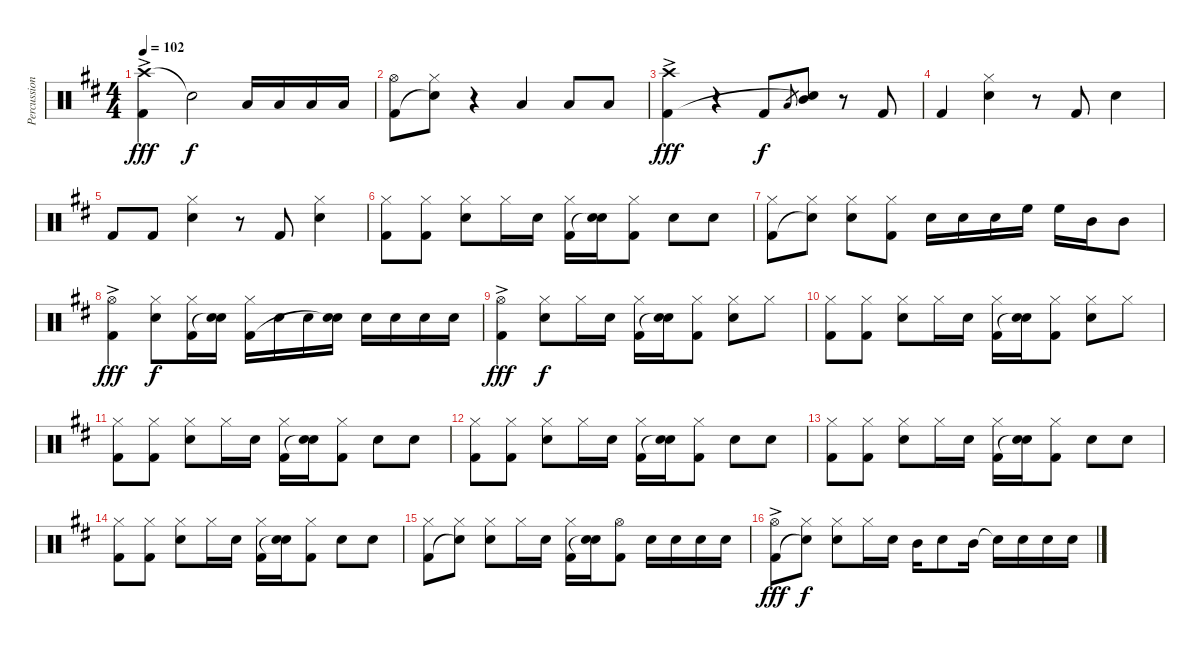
\track ("Percussion" "Percussion") {instrument percussion}
\staff {score}
\articulation defaults
\ts (4 4)
\tempo 102
\clef neutral
\ks d
("Crash high (hit)"{ac} "Kick (hit) 2"{ac}).4{dy fff} "Snare (hit)"{t}.2{dy f} "Low Tom (hit)".16 "Low Tom (hit)".16 "Low Tom (hit)".16 "Low Tom (hit)".16 |
("Hi-Hat (open)" "Kick (hit) 2").8 ("Hi-Hat (closed)" "Snare (hit)"{t}).8 r.4 "Low Tom (hit)".4 "Low Tom (hit)".8 "Low Floor Tom (hit)".8 |
("Crash high (hit)"{ac} "Kick (hit) 2"{ac}).4{dy fff} r.4 "Kick (hit) 2".8{dy f} "Low Tom (hit)".8{gr} ("Mid Tom (hit)" "Snare (hit)"{t}).8 r.8 "Kick (hit) 2".8 |
"Kick (hit) 2".4 ("Hi-Hat (closed)" "Snare (hit) 2").4 r.8 "Kick (hit) 2".8 "Snare (hit) 2".4 |
"Kick (hit) 2".8 "Kick (hit) 2".8 ("Hi-Hat (closed)" "Snare (hit) 2").4 r.8 "Kick (hit) 2".8 ("Hi-Hat (closed)" "Snare (hit) 2").4 |
("Hi-Hat (closed)" "Kick (hit) 2").8 ("Hi-Hat (closed)" "Kick (hit) 2").8 ("Hi-Hat (closed)" "Snare (hit) 2").8 "Hi-Hat (closed)".16 "Snare (hit) 2".16 ("Hi-Hat (closed)" "Kick (hit) 2").16 ("Snare (hit) 2" "Snare (hit)"{t}).16 ("Hi-Hat (closed)" "Kick (hit) 2").8 "Snare (hit) 2".8 "Snare (hit) 2".8 |
("Hi-Hat (closed)" "Kick (hit) 2").8 ("Hi-Hat (closed)" "Snare (hit)"{t}).8 ("Hi-Hat (closed)" "Snare (hit) 2").8 ("Hi-Hat (closed)" "Kick (hit) 2").8 "Snare (hit) 2".16 "Snare (hit) 2".16 "Snare (hit) 2".16 "High Floor Tom (hit)".16 "High Floor Tom (hit)".16 "Mid Tom (hit)".16 "Mid Tom (hit)".8 |
("Hi-Hat (open)"{ac} "Kick (hit) 2"{ac}).4{dy fff} ("Hi-Hat (closed)" "Snare (hit) 2").8{dy f} ("Hi-Hat (closed)" "Kick (hit) 2").16 ("Snare (hit) 2" "Snare (hit)"{t}).16 ("Hi-Hat (closed)" "Kick (hit) 2").16 "Snare (hit) 2".16 "Snare (hit) 2".16 ("Snare (hit) 2" "Snare (hit)"{t}).16 "Snare (hit) 2".16 "Snare (hit) 2".16 "Snare (hit) 2".16 "Snare (hit) 2".16 |
("Hi-Hat (open)"{ac} "Kick (hit) 2"{ac}).4{dy fff} ("Hi-Hat (closed)" "Snare (hit) 2").8{dy f} "Hi-Hat (closed)".16 "Snare (hit) 2".16 ("Hi-Hat (closed)" "Kick (hit) 2").16 ("Snare (hit) 2" "Snare (hit)"{t}).16 ("Hi-Hat (closed)" "Kick (hit) 2").8 ("Hi-Hat (closed)" "Snare (hit) 2").8 "Hi-Hat (closed)".8 |
("Hi-Hat (closed)" "Kick (hit) 2").8 ("Hi-Hat (closed)" "Kick (hit) 2").8 ("Hi-Hat (closed)" "Snare (hit) 2").8 "Hi-Hat (closed)".16 "Snare (hit) 2".16 ("Hi-Hat (closed)" "Kick (hit) 2").16 ("Snare (hit) 2" "Snare (hit)"{t}).16 ("Hi-Hat (closed)" "Kick (hit) 2").8 ("Hi-Hat (closed)" "Snare (hit) 2").8 "Hi-Hat (closed)".8 |
("Hi-Hat (closed)" "Kick (hit) 2").8 ("Hi-Hat (closed)" "Kick (hit) 2").8 ("Hi-Hat (closed)" "Snare (hit) 2").8 "Hi-Hat (closed)".16 "Snare (hit) 2".16 ("Hi-Hat (closed)" "Kick (hit) 2").16 ("Snare (hit) 2" "Snare (hit)"{t}).16 ("Hi-Hat (closed)" "Kick (hit) 2").8 "Snare (hit) 2".8 "Snare (hit) 2".8 |
("Hi-Hat (closed)" "Kick (hit) 2").8 ("Hi-Hat (closed)" "Kick (hit) 2").8 ("Hi-Hat (closed)" "Snare (hit) 2").8 "Hi-Hat (closed)".16 "Snare (hit) 2".16 ("Hi-Hat (closed)" "Kick (hit) 2").16 ("Snare (hit) 2" "Snare (hit)"{t}).16 ("Hi-Hat (closed)" "Kick (hit) 2").8 "Snare (hit) 2".8 "Snare (hit) 2".8 |
("Hi-Hat (closed)" "Kick (hit) 2").8 ("Hi-Hat (closed)" "Kick (hit) 2").8 ("Hi-Hat (closed)" "Snare (hit) 2").8 "Hi-Hat (closed)".16 "Snare (hit) 2".16 ("Hi-Hat (closed)" "Kick (hit) 2").16 ("Snare (hit) 2" "Snare (hit)"{t}).16 ("Hi-Hat (closed)" "Kick (hit) 2").8 "Snare (hit) 2".8 "Snare (hit) 2".8 |
("Hi-Hat (closed)" "Kick (hit) 2").8 ("Hi-Hat (closed)" "Kick (hit) 2").8 ("Hi-Hat (closed)" "Snare (hit) 2").8 "Hi-Hat (closed)".16 "Snare (hit) 2".16 ("Hi-Hat (closed)" "Kick (hit) 2").16 ("Snare (hit) 2" "Snare (hit)"{t}).16 ("Hi-Hat (closed)" "Kick (hit) 2").8 "Snare (hit) 2".8 "Snare (hit) 2".8 |
("Hi-Hat (closed)" "Kick (hit) 2").8 ("Hi-Hat (closed)" "Snare (hit)"{t}).8 ("Hi-Hat (closed)" "Snare (hit) 2").8 "Hi-Hat (closed)".16 "Snare (hit) 2".16 ("Hi-Hat (closed)" "Kick (hit) 2").16 ("Snare (hit) 2" "Snare (hit)"{t}).16 ("Hi-Hat (open)" "Kick (hit) 2").8 "Snare (hit) 2".16 "Snare (hit) 2".16 "Snare (hit) 2".16 "Snare (hit) 2".16 |
("Hi-Hat (open)"{ac} "Kick (hit) 2"{ac}).8{dy fff} ("Hi-Hat (closed)" "Snare (hit)"{t}).8{dy f} ("Hi-Hat (closed)" "Snare (hit) 2").8 "Hi-Hat (closed)".16 "Snare (hit) 2".16 "Mid Tom (hit)".16 "Snare (hit) 2".8 "Mid Tom (hit)".16 "Snare (hit)"{t}.16 "Snare (hit) 2".16 "Snare (hit) 2".16 "Snare (hit) 2".16
